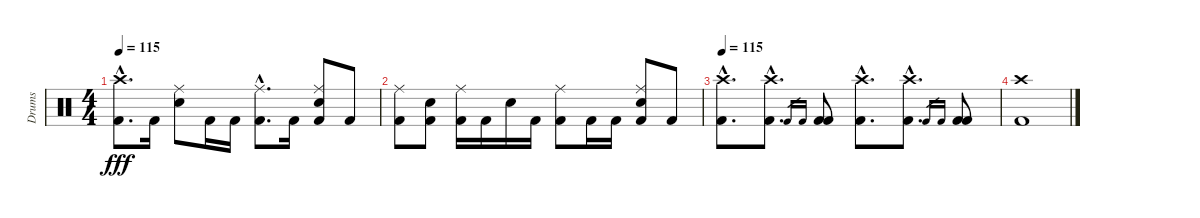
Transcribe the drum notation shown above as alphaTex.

\track ("Drums" "Drums") {instrument percussion}
\staff {score}
\articulation defaults
\ts (4 4)
\tempo 115
\clef neutral
\ks c
("Crash high (hit)"{hac} "Kick (hit) 2"{hac}).8{d dy fff} "Kick (hit) 2".16 ("Ride (middle)" "Snare (hit) 2").8 "Kick (hit) 2".16 "Kick (hit) 2".16 ("Ride (middle)"{hac} "Kick (hit) 2"{hac}).8{d} "Kick (hit) 2".16 ("Ride (middle)" "Snare (hit) 2" "Kick (hit) 2").8 "Kick (hit) 2".8 |
("Ride (middle)" "Kick (hit) 2").8 ("Snare (hit) 2" "Kick (hit) 2").8 ("Ride (middle)" "Kick (hit) 2").16 "Kick (hit) 2".16 "Snare (hit) 2".16 "Kick (hit) 2".16 ("Ride (middle)" "Kick (hit) 2").8 "Kick (hit) 2".16 "Kick (hit) 2".16 ("Ride (middle)" "Snare (hit) 2" "Kick (hit) 2").8 "Kick (hit) 2".8 |
\tempo 115
("Crash high (hit)"{hac} "Kick (hit) 2"{hac}).8{d} ("Crash high (hit)"{hac} "Kick (hit) 2"{hac}).8{d} "Kick (hit) 2".16{gr} "Kick (hit) 2".16{gr} ("Kick (hit) 2" "Kick (hit) 2").8 ("Crash high (hit)"{hac} "Kick (hit) 2"{hac}).8{d} ("Crash high (hit)"{hac} "Kick (hit) 2"{hac}).8{d} "Kick (hit) 2".16{gr} "Kick (hit) 2".16{gr} ("Kick (hit) 2" "Kick (hit) 2").8 |
("Crash high (hit)" "Kick (hit) 2").1
